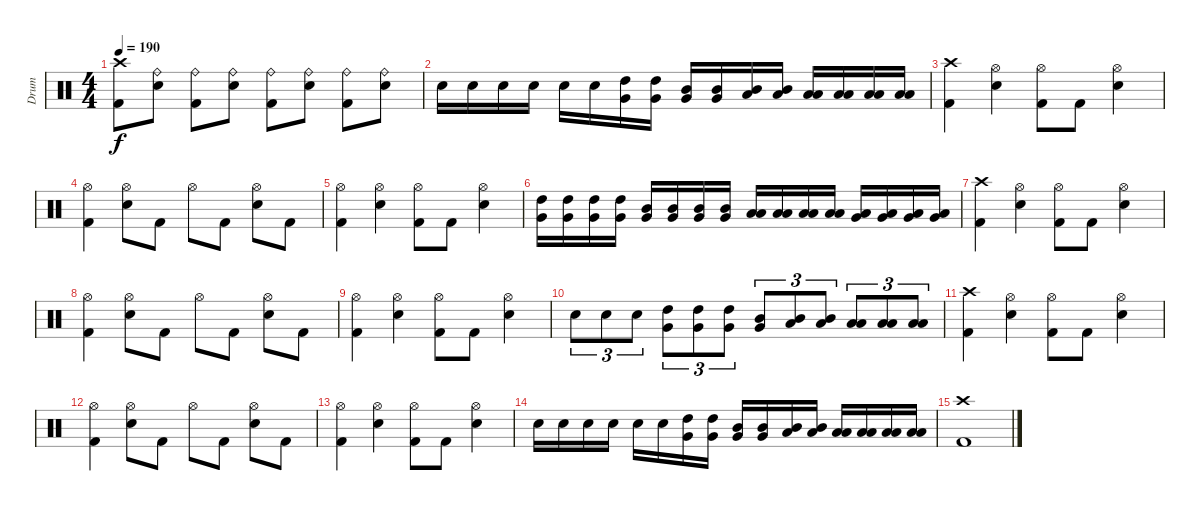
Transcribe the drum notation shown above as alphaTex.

\track ("Drum" "Drum") {instrument percussion}
\staff {score}
\articulation defaults
\ts (4 4)
\tempo 190
\clef neutral
\ks c
("Crash high (hit)" "Kick (hit) 2").8{dy f} ("Ride (bell)" "Snare (hit) 2").8 ("Ride (bell)" "Kick (hit) 2").8 ("Ride (bell)" "Snare (hit) 2").8 ("Ride (bell)" "Kick (hit) 2").8 ("Ride (bell)" "Snare (hit) 2").8 ("Ride (bell)" "Kick (hit) 2").8 ("Ride (bell)" "Snare (hit) 2").8 |
"Snare (hit) 2".16 "Snare (hit) 2".16 "Snare (hit) 2".16 "Snare (hit) 2".16 "Snare (hit) 2".16 "Snare (hit) 2".16 ("High Tom (hit)" "Very Low Tom (hit)").16 ("High Tom (hit)" "Very Low Tom (hit)").16 ("Mid Tom (hit)" "Very Low Tom (hit)").16 ("Mid Tom (hit)" "Very Low Tom (hit)").16 ("Mid Tom (hit)" "Low Floor Tom (hit)").16 ("Mid Tom (hit)" "Low Floor Tom (hit)").16 ("Low Tom (hit)" "Low Floor Tom (hit)").16 ("Low Tom (hit)" "Low Floor Tom (hit)").16 ("Low Tom (hit)" "Low Floor Tom (hit)").16 ("Low Tom (hit)" "Low Floor Tom (hit)").16 |
("Crash high (hit)" "Kick (hit) 2").4 ("Hi-Hat (open)" "Snare (hit) 2").4 ("Hi-Hat (open)" "Kick (hit) 2").8 "Kick (hit) 2".8 ("Hi-Hat (open)" "Snare (hit) 2").4 |
("Hi-Hat (open)" "Kick (hit) 2").4 ("Hi-Hat (open)" "Snare (hit) 2").8 "Kick (hit) 2".8 "Hi-Hat (open)".8 "Kick (hit) 2".8 ("Hi-Hat (open)" "Snare (hit) 2").8 "Kick (hit) 2".8 |
("Hi-Hat (open)" "Kick (hit) 2").4 ("Hi-Hat (open)" "Snare (hit) 2").4 ("Hi-Hat (open)" "Kick (hit) 2").8 "Kick (hit) 2".8 ("Hi-Hat (open)" "Snare (hit) 2").4 |
("High Tom (hit)" "Very Low Tom (hit)").16 ("High Tom (hit)" "Very Low Tom (hit)").16 ("High Tom (hit)" "Very Low Tom (hit)").16 ("High Tom (hit)" "Very Low Tom (hit)").16 ("Mid Tom (hit)" "Very Low Tom (hit)").16 ("Mid Tom (hit)" "Very Low Tom (hit)").16 ("Mid Tom (hit)" "Very Low Tom (hit)").16 ("Mid Tom (hit)" "Very Low Tom (hit)").16 ("Low Tom (hit)" "Low Floor Tom (hit)").16 ("Low Tom (hit)" "Low Floor Tom (hit)").16 ("Low Tom (hit)" "Low Floor Tom (hit)").16 ("Low Tom (hit)" "Low Floor Tom (hit)").16 ("Very Low Tom (hit)" "Low Floor Tom (hit)").16 ("Very Low Tom (hit)" "Low Floor Tom (hit)").16 ("Very Low Tom (hit)" "Low Floor Tom (hit)").16 ("Very Low Tom (hit)" "Low Floor Tom (hit)").16 |
("Crash high (hit)" "Kick (hit) 2").4 ("Hi-Hat (open)" "Snare (hit) 2").4 ("Hi-Hat (open)" "Kick (hit) 2").8 "Kick (hit) 2".8 ("Hi-Hat (open)" "Snare (hit) 2").4 |
("Hi-Hat (open)" "Kick (hit) 2").4 ("Hi-Hat (open)" "Snare (hit) 2").8 "Kick (hit) 2".8 "Hi-Hat (open)".8 "Kick (hit) 2".8 ("Hi-Hat (open)" "Snare (hit) 2").8 "Kick (hit) 2".8 |
("Hi-Hat (open)" "Kick (hit) 2").4 ("Hi-Hat (open)" "Snare (hit) 2").4 ("Hi-Hat (open)" "Kick (hit) 2").8 "Kick (hit) 2".8 ("Hi-Hat (open)" "Snare (hit) 2").4 |
"Snare (hit) 2".8{tu (3 2)} "Snare (hit) 2".8{tu (3 2)} "Snare (hit) 2".8{tu (3 2)} ("High Tom (hit)" "Very Low Tom (hit)").8{tu (3 2)} ("High Tom (hit)" "Very Low Tom (hit)").8{tu (3 2)} ("High Tom (hit)" "Very Low Tom (hit)").8{tu (3 2)} ("Mid Tom (hit)" "Very Low Tom (hit)").8{tu (3 2)} ("Mid Tom (hit)" "Low Floor Tom (hit)").8{tu (3 2)} ("Mid Tom (hit)" "Low Floor Tom (hit)").8{tu (3 2)} ("Low Tom (hit)" "Low Floor Tom (hit)").8{tu (3 2)} ("Low Tom (hit)" "Low Floor Tom (hit)").8{tu (3 2)} ("Low Tom (hit)" "Low Floor Tom (hit)").8{tu (3 2)} |
("Crash high (hit)" "Kick (hit) 2").4 ("Hi-Hat (open)" "Snare (hit) 2").4 ("Hi-Hat (open)" "Kick (hit) 2").8 "Kick (hit) 2".8 ("Hi-Hat (open)" "Snare (hit) 2").4 |
("Hi-Hat (open)" "Kick (hit) 2").4 ("Hi-Hat (open)" "Snare (hit) 2").8 "Kick (hit) 2".8 "Hi-Hat (open)".8 "Kick (hit) 2".8 ("Hi-Hat (open)" "Snare (hit) 2").8 "Kick (hit) 2".8 |
("Hi-Hat (open)" "Kick (hit) 2").4 ("Hi-Hat (open)" "Snare (hit) 2").4 ("Hi-Hat (open)" "Kick (hit) 2").8 "Kick (hit) 2".8 ("Hi-Hat (open)" "Snare (hit) 2").4 |
"Snare (hit) 2".16 "Snare (hit) 2".16 "Snare (hit) 2".16 "Snare (hit) 2".16 "Snare (hit) 2".16 "Snare (hit) 2".16 ("High Tom (hit)" "Very Low Tom (hit)").16 ("High Tom (hit)" "Very Low Tom (hit)").16 ("Mid Tom (hit)" "Very Low Tom (hit)").16 ("Mid Tom (hit)" "Very Low Tom (hit)").16 ("Mid Tom (hit)" "Low Floor Tom (hit)").16 ("Mid Tom (hit)" "Low Floor Tom (hit)").16 ("Low Tom (hit)" "Low Floor Tom (hit)").16 ("Low Tom (hit)" "Low Floor Tom (hit)").16 ("Low Tom (hit)" "Low Floor Tom (hit)").16 ("Low Tom (hit)" "Low Floor Tom (hit)").16 |
("Crash high (hit)" "Kick (hit) 2").1
